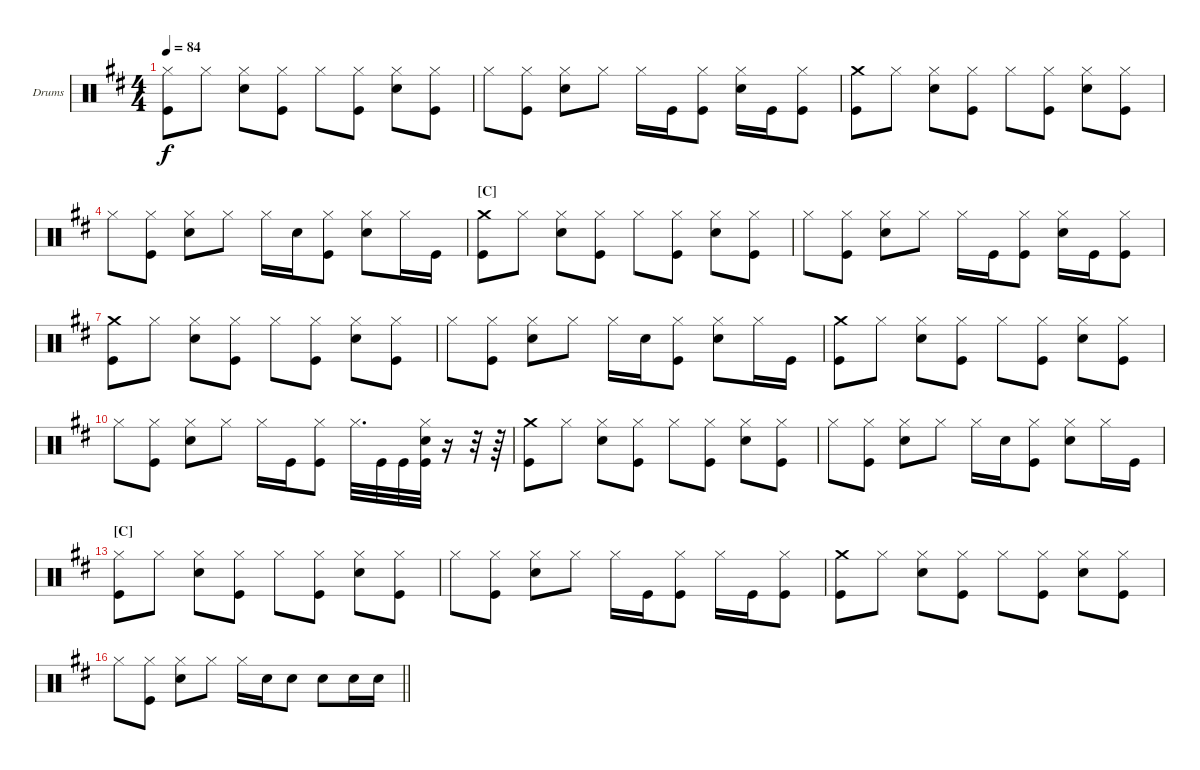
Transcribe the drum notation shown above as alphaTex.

\bracketExtendMode nobrackets
\firstSystemTrackNameOrientation horizontal
\otherSystemsTrackNameOrientation horizontal
\defaultBarNumberDisplay FirstOfSystem
\track ("Drumkit" "Drums") {instrument percussion}
\staff {score}
\articulation defaults
\ts (4 4)
\tempo 84
\clef neutral
\ks d
("Kick (hit)" "Hi-Hat (closed)").8{dy f} "Hi-Hat (closed)".8 ("Snare (hit) 2" "Hi-Hat (closed)").8 ("Kick (hit)" "Hi-Hat (closed)").8 "Hi-Hat (closed)".8 ("Kick (hit)" "Hi-Hat (closed)").8 ("Snare (hit) 2" "Hi-Hat (closed)").8 ("Kick (hit)" "Hi-Hat (closed)").8 |
"Hi-Hat (closed)".8 ("Kick (hit)" "Hi-Hat (closed)").8 ("Snare (hit) 2" "Hi-Hat (closed)").8 "Hi-Hat (closed)".8 "Hi-Hat (closed)".16 "Kick (hit)".16 ("Kick (hit)" "Hi-Hat (closed)").8 ("Snare (hit) 2" "Hi-Hat (closed)").16 "Kick (hit)".16 ("Kick (hit)" "Hi-Hat (closed)").8 |
("Kick (hit)" "Crash medium (hit)").8 "Hi-Hat (closed)".8 ("Snare (hit) 2" "Hi-Hat (closed)").8 ("Kick (hit)" "Hi-Hat (closed)").8 "Hi-Hat (closed)".8 ("Kick (hit)" "Hi-Hat (closed)").8 ("Snare (hit) 2" "Hi-Hat (closed)").8 ("Kick (hit)" "Hi-Hat (closed)").8 |
"Hi-Hat (closed)".8 ("Kick (hit)" "Hi-Hat (closed)").8 ("Snare (hit) 2" "Hi-Hat (closed)").8 "Hi-Hat (closed)".8 "Hi-Hat (closed)".16 "Snare (hit) 2".16 ("Kick (hit)" "Hi-Hat (closed)").8 ("Snare (hit) 2" "Hi-Hat (closed)").8 "Hi-Hat (closed)".16 "Kick (hit)".16 |
\section ("C" "")
("Kick (hit)" "Crash medium (hit)").8 "Hi-Hat (closed)".8 ("Snare (hit) 2" "Hi-Hat (closed)").8 ("Kick (hit)" "Hi-Hat (closed)").8 "Hi-Hat (closed)".8 ("Kick (hit)" "Hi-Hat (closed)").8 ("Snare (hit) 2" "Hi-Hat (closed)").8 ("Kick (hit)" "Hi-Hat (closed)").8 |
"Hi-Hat (closed)".8 ("Kick (hit)" "Hi-Hat (closed)").8 ("Snare (hit) 2" "Hi-Hat (closed)").8 "Hi-Hat (closed)".8 "Hi-Hat (closed)".16 "Kick (hit)".16 ("Kick (hit)" "Hi-Hat (closed)").8 ("Snare (hit) 2" "Hi-Hat (closed)").16 "Kick (hit)".16 ("Kick (hit)" "Hi-Hat (closed)").8 |
("Kick (hit)" "Crash medium (hit)").8 "Hi-Hat (closed)".8 ("Snare (hit) 2" "Hi-Hat (closed)").8 ("Kick (hit)" "Hi-Hat (closed)").8 "Hi-Hat (closed)".8 ("Kick (hit)" "Hi-Hat (closed)").8 ("Snare (hit) 2" "Hi-Hat (closed)").8 ("Kick (hit)" "Hi-Hat (closed)").8 |
"Hi-Hat (closed)".8 ("Kick (hit)" "Hi-Hat (closed)").8 ("Snare (hit) 2" "Hi-Hat (closed)").8 "Hi-Hat (closed)".8 "Hi-Hat (closed)".16 "Snare (hit) 2".16 ("Kick (hit)" "Hi-Hat (closed)").8 ("Snare (hit) 2" "Hi-Hat (closed)").8 "Hi-Hat (closed)".16 "Kick (hit)".16 |
("Kick (hit)" "Crash medium (hit)").8 "Hi-Hat (closed)".8 ("Snare (hit) 2" "Hi-Hat (closed)").8 ("Kick (hit)" "Hi-Hat (closed)").8 "Hi-Hat (closed)".8 ("Kick (hit)" "Hi-Hat (closed)").8 ("Snare (hit) 2" "Hi-Hat (closed)").8 ("Kick (hit)" "Hi-Hat (closed)").8 |
"Hi-Hat (closed)".8 ("Kick (hit)" "Hi-Hat (closed)").8 ("Snare (hit) 2" "Hi-Hat (closed)").8 "Hi-Hat (closed)".8 "Hi-Hat (closed)".16 "Kick (hit)".16 ("Kick (hit)" "Hi-Hat (closed)").8 "Hi-Hat (closed)".32{d} "Kick (hit)".32 "Kick (hit)".32 ("Kick (hit)" "Snare (hit) 2" "Hi-Hat (closed)").32 r.16 r.32 r.64 |
("Kick (hit)" "Crash medium (hit)").8 "Hi-Hat (closed)".8 ("Snare (hit) 2" "Hi-Hat (closed)").8 ("Kick (hit)" "Hi-Hat (closed)").8 "Hi-Hat (closed)".8 ("Kick (hit)" "Hi-Hat (closed)").8 ("Snare (hit) 2" "Hi-Hat (closed)").8 ("Kick (hit)" "Hi-Hat (closed)").8 |
"Hi-Hat (closed)".8 ("Kick (hit)" "Hi-Hat (closed)").8 ("Snare (hit) 2" "Hi-Hat (closed)").8 "Hi-Hat (closed)".8 "Hi-Hat (closed)".16 "Snare (hit) 2".16 ("Kick (hit)" "Hi-Hat (closed)").8 ("Snare (hit) 2" "Hi-Hat (closed)").8 "Hi-Hat (closed)".16 "Kick (hit)".16 |
\section ("C" "")
("Kick (hit)" "Hi-Hat (closed)").8 "Hi-Hat (closed)".8 ("Snare (hit) 2" "Hi-Hat (closed)").8 ("Kick (hit)" "Hi-Hat (closed)").8 "Hi-Hat (closed)".8 ("Kick (hit)" "Hi-Hat (closed)").8 ("Snare (hit) 2" "Hi-Hat (closed)").8 ("Kick (hit)" "Hi-Hat (closed)").8 |
"Hi-Hat (closed)".8 ("Kick (hit)" "Hi-Hat (closed)").8 ("Snare (hit) 2" "Hi-Hat (closed)").8 "Hi-Hat (closed)".8 "Hi-Hat (closed)".16 "Kick (hit)".16 ("Kick (hit)" "Hi-Hat (closed)").8 "Hi-Hat (closed)".16 "Kick (hit)".16 ("Kick (hit)" "Hi-Hat (closed)").8 |
("Kick (hit)" "Crash medium (hit)").8 "Hi-Hat (closed)".8 ("Snare (hit) 2" "Hi-Hat (closed)").8 ("Kick (hit)" "Hi-Hat (closed)").8 "Hi-Hat (closed)".8 ("Kick (hit)" "Hi-Hat (closed)").8 ("Snare (hit) 2" "Hi-Hat (closed)").8 ("Kick (hit)" "Hi-Hat (closed)").8 |
\barLineRight lightlight "Hi-Hat (closed)".8
("Kick (hit)" "Hi-Hat (closed)").8 ("Snare (hit) 2" "Hi-Hat (closed)").8 "Hi-Hat (closed)".8 "Hi-Hat (closed)".16 "Snare (hit) 2".16 "Snare (hit) 2".8 "Snare (hit) 2".8 "Snare (hit) 2".16 "Snare (hit) 2".16
